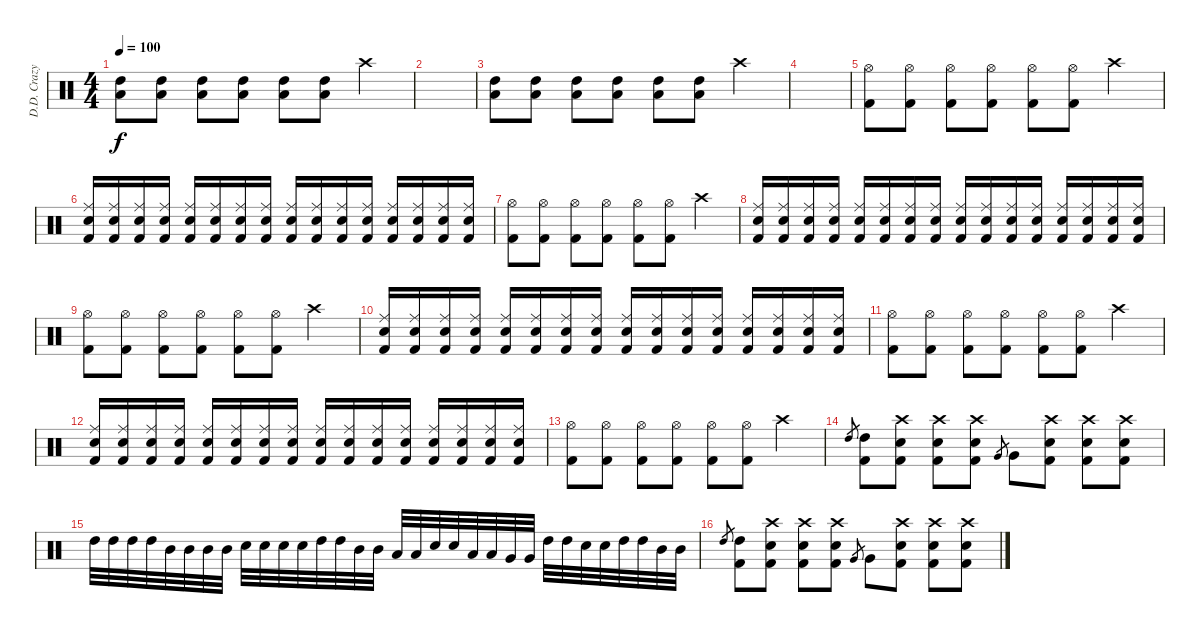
\track ("D.D. Crazy " "D.D. Crazy") {instrument percussion}
\staff {score}
\articulation defaults
\ts (4 4)
\tempo 100
\clef neutral
\ks c
("High Tom (hit)" "Low Tom (hit)").8{dy f} ("High Tom (hit)" "Low Tom (hit)").8 ("High Tom (hit)" "Low Tom (hit)").8 ("High Tom (hit)" "Low Tom (hit)").8 ("High Tom (hit)" "Low Tom (hit)").8 ("High Tom (hit)" "Low Tom (hit)").8 "Crash high (hit)".4 |
|
("High Tom (hit)" "Low Tom (hit)").8 ("High Tom (hit)" "Low Tom (hit)").8 ("High Tom (hit)" "Low Tom (hit)").8 ("High Tom (hit)" "Low Tom (hit)").8 ("High Tom (hit)" "Low Tom (hit)").8 ("High Tom (hit)" "Low Tom (hit)").8 "Crash high (hit)".4 |
|
("Hi-Hat (open)" "Kick (hit) 2").8 ("Hi-Hat (open)" "Kick (hit) 2").8 ("Hi-Hat (open)" "Kick (hit) 2").8 ("Hi-Hat (open)" "Kick (hit) 2").8 ("Hi-Hat (open)" "Kick (hit) 2").8 ("Hi-Hat (open)" "Kick (hit) 2").8 "Crash high (hit)".4 |
("Ride (middle)" "Snare (hit) 2" "Kick (hit) 2").16 ("Ride (middle)" "Snare (hit) 2" "Kick (hit) 2").16 ("Ride (middle)" "Snare (hit) 2" "Kick (hit) 2").16 ("Ride (middle)" "Snare (hit) 2" "Kick (hit) 2").16 ("Ride (middle)" "Snare (hit) 2" "Kick (hit) 2").16 ("Ride (middle)" "Snare (hit) 2" "Kick (hit) 2").16 ("Ride (middle)" "Snare (hit) 2" "Kick (hit) 2").16 ("Ride (middle)" "Snare (hit) 2" "Kick (hit) 2").16 ("Ride (middle)" "Snare (hit) 2" "Kick (hit) 2").16 ("Ride (middle)" "Snare (hit) 2" "Kick (hit) 2").16 ("Ride (middle)" "Snare (hit) 2" "Kick (hit) 2").16 ("Ride (middle)" "Snare (hit) 2" "Kick (hit) 2").16 ("Ride (middle)" "Snare (hit) 2" "Kick (hit) 2").16 ("Ride (middle)" "Snare (hit) 2" "Kick (hit) 2").16 ("Ride (middle)" "Snare (hit) 2" "Kick (hit) 2").16 ("Ride (middle)" "Snare (hit) 2" "Kick (hit) 2").16 |
("Hi-Hat (open)" "Kick (hit) 2").8 ("Hi-Hat (open)" "Kick (hit) 2").8 ("Hi-Hat (open)" "Kick (hit) 2").8 ("Hi-Hat (open)" "Kick (hit) 2").8 ("Hi-Hat (open)" "Kick (hit) 2").8 ("Hi-Hat (open)" "Kick (hit) 2").8 "Crash high (hit)".4 |
("Ride (middle)" "Snare (hit) 2" "Kick (hit) 2").16 ("Ride (middle)" "Snare (hit) 2" "Kick (hit) 2").16 ("Ride (middle)" "Snare (hit) 2" "Kick (hit) 2").16 ("Ride (middle)" "Snare (hit) 2" "Kick (hit) 2").16 ("Ride (middle)" "Snare (hit) 2" "Kick (hit) 2").16 ("Ride (middle)" "Snare (hit) 2" "Kick (hit) 2").16 ("Ride (middle)" "Snare (hit) 2" "Kick (hit) 2").16 ("Ride (middle)" "Snare (hit) 2" "Kick (hit) 2").16 ("Ride (middle)" "Snare (hit) 2" "Kick (hit) 2").16 ("Ride (middle)" "Snare (hit) 2" "Kick (hit) 2").16 ("Ride (middle)" "Snare (hit) 2" "Kick (hit) 2").16 ("Ride (middle)" "Snare (hit) 2" "Kick (hit) 2").16 ("Ride (middle)" "Snare (hit) 2" "Kick (hit) 2").16 ("Ride (middle)" "Snare (hit) 2" "Kick (hit) 2").16 ("Ride (middle)" "Snare (hit) 2" "Kick (hit) 2").16 ("Ride (middle)" "Snare (hit) 2" "Kick (hit) 2").16 |
("Hi-Hat (open)" "Kick (hit) 2").8 ("Hi-Hat (open)" "Kick (hit) 2").8 ("Hi-Hat (open)" "Kick (hit) 2").8 ("Hi-Hat (open)" "Kick (hit) 2").8 ("Hi-Hat (open)" "Kick (hit) 2").8 ("Hi-Hat (open)" "Kick (hit) 2").8 "Crash high (hit)".4 |
("Ride (middle)" "Snare (hit) 2" "Kick (hit) 2").16 ("Ride (middle)" "Snare (hit) 2" "Kick (hit) 2").16 ("Ride (middle)" "Snare (hit) 2" "Kick (hit) 2").16 ("Ride (middle)" "Snare (hit) 2" "Kick (hit) 2").16 ("Ride (middle)" "Snare (hit) 2" "Kick (hit) 2").16 ("Ride (middle)" "Snare (hit) 2" "Kick (hit) 2").16 ("Ride (middle)" "Snare (hit) 2" "Kick (hit) 2").16 ("Ride (middle)" "Snare (hit) 2" "Kick (hit) 2").16 ("Ride (middle)" "Snare (hit) 2" "Kick (hit) 2").16 ("Ride (middle)" "Snare (hit) 2" "Kick (hit) 2").16 ("Ride (middle)" "Snare (hit) 2" "Kick (hit) 2").16 ("Ride (middle)" "Snare (hit) 2" "Kick (hit) 2").16 ("Ride (middle)" "Snare (hit) 2" "Kick (hit) 2").16 ("Ride (middle)" "Snare (hit) 2" "Kick (hit) 2").16 ("Ride (middle)" "Snare (hit) 2" "Kick (hit) 2").16 ("Ride (middle)" "Snare (hit) 2" "Kick (hit) 2").16 |
("Hi-Hat (open)" "Kick (hit) 2").8 ("Hi-Hat (open)" "Kick (hit) 2").8 ("Hi-Hat (open)" "Kick (hit) 2").8 ("Hi-Hat (open)" "Kick (hit) 2").8 ("Hi-Hat (open)" "Kick (hit) 2").8 ("Hi-Hat (open)" "Kick (hit) 2").8 "Crash high (hit)".4 |
("Ride (middle)" "Snare (hit) 2" "Kick (hit) 2").16 ("Ride (middle)" "Snare (hit) 2" "Kick (hit) 2").16 ("Ride (middle)" "Snare (hit) 2" "Kick (hit) 2").16 ("Ride (middle)" "Snare (hit) 2" "Kick (hit) 2").16 ("Ride (middle)" "Snare (hit) 2" "Kick (hit) 2").16 ("Ride (middle)" "Snare (hit) 2" "Kick (hit) 2").16 ("Ride (middle)" "Snare (hit) 2" "Kick (hit) 2").16 ("Ride (middle)" "Snare (hit) 2" "Kick (hit) 2").16 ("Ride (middle)" "Snare (hit) 2" "Kick (hit) 2").16 ("Ride (middle)" "Snare (hit) 2" "Kick (hit) 2").16 ("Ride (middle)" "Snare (hit) 2" "Kick (hit) 2").16 ("Ride (middle)" "Snare (hit) 2" "Kick (hit) 2").16 ("Ride (middle)" "Snare (hit) 2" "Kick (hit) 2").16 ("Ride (middle)" "Snare (hit) 2" "Kick (hit) 2").16 ("Ride (middle)" "Snare (hit) 2" "Kick (hit) 2").16 ("Ride (middle)" "Snare (hit) 2" "Kick (hit) 2").16 |
("Hi-Hat (open)" "Kick (hit) 2").8 ("Hi-Hat (open)" "Kick (hit) 2").8 ("Hi-Hat (open)" "Kick (hit) 2").8 ("Hi-Hat (open)" "Kick (hit) 2").8 ("Hi-Hat (open)" "Kick (hit) 2").8 ("Hi-Hat (open)" "Kick (hit) 2").8 "Crash high (hit)".4 |
"High Tom (hit)".8{gr} ("High Tom (hit)" "Kick (hit) 2").8 ("Crash high (hit)" "Snare (hit) 2" "Kick (hit) 2").8 ("Crash high (hit)" "Snare (hit) 2" "Kick (hit) 2").8 ("Crash high (hit)" "Snare (hit) 2" "Kick (hit) 2").8 "Very Low Tom (hit)".8{gr} "Very Low Tom (hit)".8 ("Crash high (hit)" "Snare (hit) 2" "Kick (hit) 2").8 ("Crash high (hit)" "Snare (hit) 2" "Kick (hit) 2").8 ("Crash high (hit)" "Snare (hit) 2" "Kick (hit) 2").8 |
"High Tom (hit)".32 "High Tom (hit)".32 "High Tom (hit)".32 "High Tom (hit)".32 "Mid Tom (hit)".32 "Mid Tom (hit)".32 "Mid Tom (hit)".32 "Mid Tom (hit)".32 "Snare (hit) 2".32 "Snare (hit) 2".32 "Snare (hit) 2".32 "Snare (hit) 2".32 "High Tom (hit)".32 "High Tom (hit)".32 "Mid Tom (hit)".32 "Mid Tom (hit)".32 "Low Tom (hit)".32 "Low Tom (hit)".32 "Snare (hit) 2".32 "Snare (hit) 2".32 "Low Tom (hit)".32 "Low Tom (hit)".32 "Very Low Tom (hit)".32 "Very Low Tom (hit)".32 "High Tom (hit)".32 "High Tom (hit)".32 "Snare (hit) 2".32 "Snare (hit) 2".32 "High Tom (hit)".32 "High Tom (hit)".32 "Mid Tom (hit)".32 "Mid Tom (hit)".32 |
"High Tom (hit)".8{gr} ("High Tom (hit)" "Kick (hit) 2").8 ("Crash high (hit)" "Snare (hit) 2" "Kick (hit) 2").8 ("Crash high (hit)" "Snare (hit) 2" "Kick (hit) 2").8 ("Crash high (hit)" "Snare (hit) 2" "Kick (hit) 2").8 "Very Low Tom (hit)".8{gr} "Very Low Tom (hit)".8 ("Crash high (hit)" "Snare (hit) 2" "Kick (hit) 2").8 ("Crash high (hit)" "Snare (hit) 2" "Kick (hit) 2").8 ("Crash high (hit)" "Snare (hit) 2" "Kick (hit) 2").8
